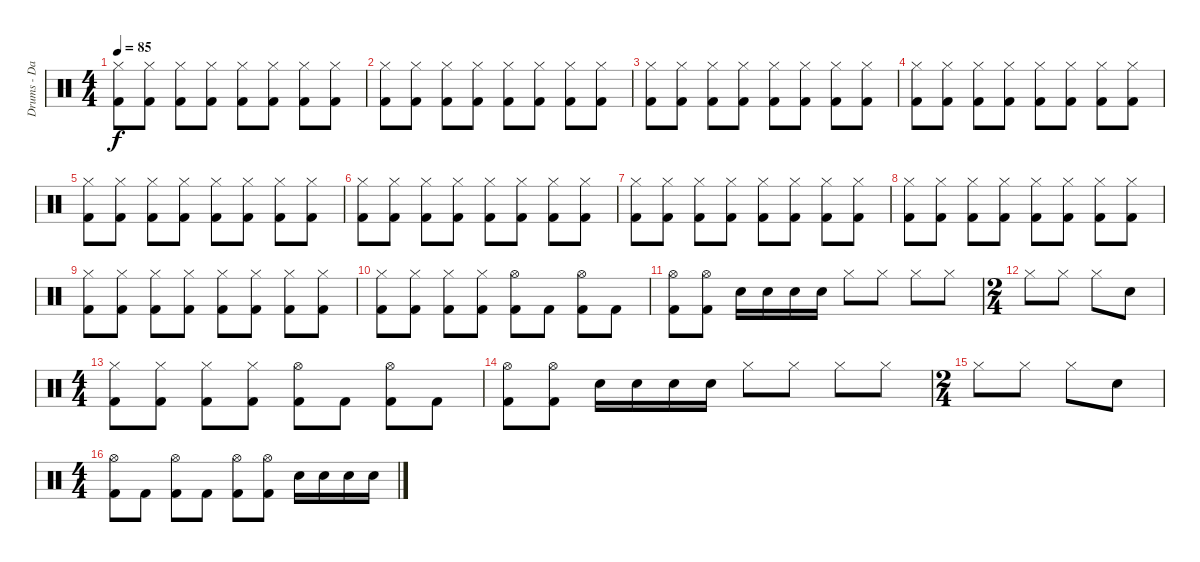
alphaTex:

\track ("Drums - Daniel Zimmermann" "Drums - Da") {instrument percussion}
\staff {score}
\articulation defaults
\ts (4 4)
\tempo 85
\clef neutral
\ks c
("Hi-Hat (closed)" "Kick (hit) 2").8{dy f} ("Hi-Hat (closed)" "Kick (hit) 2").8 ("Hi-Hat (closed)" "Kick (hit) 2").8 ("Hi-Hat (closed)" "Kick (hit) 2").8 ("Hi-Hat (closed)" "Kick (hit) 2").8 ("Hi-Hat (closed)" "Kick (hit) 2").8 ("Hi-Hat (closed)" "Kick (hit) 2").8 ("Hi-Hat (closed)" "Kick (hit) 2").8 |
("Hi-Hat (closed)" "Kick (hit) 2").8 ("Hi-Hat (closed)" "Kick (hit) 2").8 ("Hi-Hat (closed)" "Kick (hit) 2").8 ("Hi-Hat (closed)" "Kick (hit) 2").8 ("Hi-Hat (closed)" "Kick (hit) 2").8 ("Hi-Hat (closed)" "Kick (hit) 2").8 ("Hi-Hat (closed)" "Kick (hit) 2").8 ("Hi-Hat (closed)" "Kick (hit) 2").8 |
("Hi-Hat (closed)" "Kick (hit) 2").8 ("Hi-Hat (closed)" "Kick (hit) 2").8 ("Hi-Hat (closed)" "Kick (hit) 2").8 ("Hi-Hat (closed)" "Kick (hit) 2").8 ("Hi-Hat (closed)" "Kick (hit) 2").8 ("Hi-Hat (closed)" "Kick (hit) 2").8 ("Hi-Hat (closed)" "Kick (hit) 2").8 ("Hi-Hat (closed)" "Kick (hit) 2").8 |
("Hi-Hat (closed)" "Kick (hit) 2").8 ("Hi-Hat (closed)" "Kick (hit) 2").8 ("Hi-Hat (closed)" "Kick (hit) 2").8 ("Hi-Hat (closed)" "Kick (hit) 2").8 ("Hi-Hat (closed)" "Kick (hit) 2").8 ("Hi-Hat (closed)" "Kick (hit) 2").8 ("Hi-Hat (closed)" "Kick (hit) 2").8 ("Hi-Hat (closed)" "Kick (hit) 2").8 |
("Hi-Hat (closed)" "Kick (hit) 2").8 ("Hi-Hat (closed)" "Kick (hit) 2").8 ("Hi-Hat (closed)" "Kick (hit) 2").8 ("Hi-Hat (closed)" "Kick (hit) 2").8 ("Hi-Hat (closed)" "Kick (hit) 2").8 ("Hi-Hat (closed)" "Kick (hit) 2").8 ("Hi-Hat (closed)" "Kick (hit) 2").8 ("Hi-Hat (closed)" "Kick (hit) 2").8 |
("Hi-Hat (closed)" "Kick (hit) 2").8 ("Hi-Hat (closed)" "Kick (hit) 2").8 ("Hi-Hat (closed)" "Kick (hit) 2").8 ("Hi-Hat (closed)" "Kick (hit) 2").8 ("Hi-Hat (closed)" "Kick (hit) 2").8 ("Hi-Hat (closed)" "Kick (hit) 2").8 ("Hi-Hat (closed)" "Kick (hit) 2").8 ("Hi-Hat (closed)" "Kick (hit) 2").8 |
("Hi-Hat (closed)" "Kick (hit) 2").8 ("Hi-Hat (closed)" "Kick (hit) 2").8 ("Hi-Hat (closed)" "Kick (hit) 2").8 ("Hi-Hat (closed)" "Kick (hit) 2").8 ("Hi-Hat (closed)" "Kick (hit) 2").8 ("Hi-Hat (closed)" "Kick (hit) 2").8 ("Hi-Hat (closed)" "Kick (hit) 2").8 ("Hi-Hat (closed)" "Kick (hit) 2").8 |
("Hi-Hat (closed)" "Kick (hit) 2").8 ("Hi-Hat (closed)" "Kick (hit) 2").8 ("Hi-Hat (closed)" "Kick (hit) 2").8 ("Hi-Hat (closed)" "Kick (hit) 2").8 ("Hi-Hat (closed)" "Kick (hit) 2").8 ("Hi-Hat (closed)" "Kick (hit) 2").8 ("Hi-Hat (closed)" "Kick (hit) 2").8 ("Hi-Hat (closed)" "Kick (hit) 2").8 |
("Hi-Hat (closed)" "Kick (hit) 2").8 ("Hi-Hat (closed)" "Kick (hit) 2").8 ("Hi-Hat (closed)" "Kick (hit) 2").8 ("Hi-Hat (closed)" "Kick (hit) 2").8 ("Hi-Hat (closed)" "Kick (hit) 2").8 ("Hi-Hat (closed)" "Kick (hit) 2").8 ("Hi-Hat (closed)" "Kick (hit) 2").8 ("Hi-Hat (closed)" "Kick (hit) 2").8 |
("Hi-Hat (closed)" "Kick (hit) 2").8 ("Hi-Hat (closed)" "Kick (hit) 2").8 ("Hi-Hat (closed)" "Kick (hit) 2").8 ("Hi-Hat (closed)" "Kick (hit) 2").8 ("Hi-Hat (open)" "Kick (hit) 2").8 "Kick (hit) 2".8 ("Hi-Hat (open)" "Kick (hit) 2").8 "Kick (hit) 2".8 |
("Hi-Hat (open)" "Kick (hit) 2").8 ("Hi-Hat (open)" "Kick (hit) 2").8 "Snare (hit) 2".16 "Snare (hit) 2".16 "Snare (hit) 2".16 "Snare (hit) 2".16 "Hi-Hat (closed)".8 "Hi-Hat (closed)".8 "Hi-Hat (closed)".8 "Hi-Hat (closed)".8 |
\ts (2 4)
"Hi-Hat (closed)".8 "Hi-Hat (closed)".8 "Hi-Hat (closed)".8 "Snare (hit) 2".8 |
\ts (4 4)
("Hi-Hat (closed)" "Kick (hit) 2").8 ("Hi-Hat (closed)" "Kick (hit) 2").8 ("Hi-Hat (closed)" "Kick (hit) 2").8 ("Hi-Hat (closed)" "Kick (hit) 2").8 ("Hi-Hat (open)" "Kick (hit) 2").8 "Kick (hit) 2".8 ("Hi-Hat (open)" "Kick (hit) 2").8 "Kick (hit) 2".8 |
("Hi-Hat (open)" "Kick (hit) 2").8 ("Hi-Hat (open)" "Kick (hit) 2").8 "Snare (hit) 2".16 "Snare (hit) 2".16 "Snare (hit) 2".16 "Snare (hit) 2".16 "Hi-Hat (closed)".8 "Hi-Hat (closed)".8 "Hi-Hat (closed)".8 "Hi-Hat (closed)".8 |
\ts (2 4)
"Hi-Hat (closed)".8 "Hi-Hat (closed)".8 "Hi-Hat (closed)".8 "Snare (hit) 2".8 |
\ts (4 4)
("Hi-Hat (open)" "Kick (hit) 2").8 "Kick (hit) 2".8 ("Hi-Hat (open)" "Kick (hit) 2").8 "Kick (hit) 2".8 ("Hi-Hat (open)" "Kick (hit) 2").8 ("Hi-Hat (open)" "Kick (hit) 2").8 "Snare (hit) 2".16 "Snare (hit) 2".16 "Snare (hit) 2".16 "Snare (hit) 2".16
